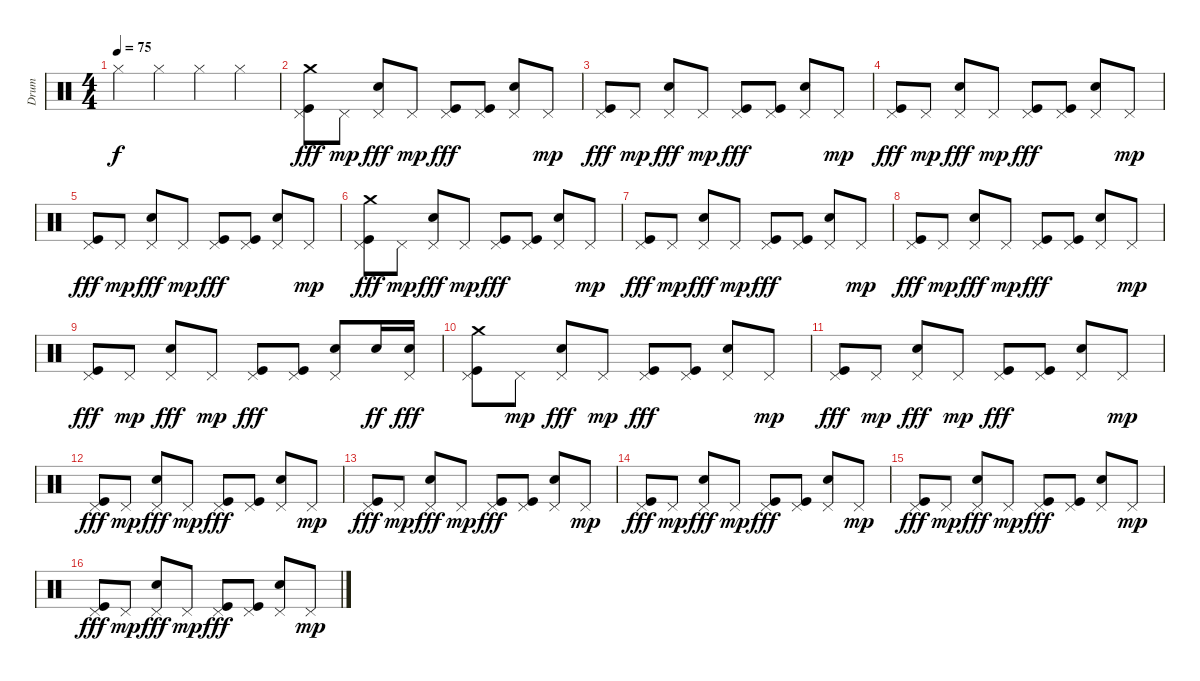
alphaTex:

\track ("Drum" "Drum") {instrument percussion}
\staff {score}
\articulation defaults
\ts (4 4)
\tempo 75
\clef neutral
\ks c "Hi-Hat (closed)".4{dy f} "Hi-Hat (closed)".4 "Hi-Hat (closed)".4 "Hi-Hat (closed)".4
|
("Pedal Hi-Hat (hit)" "Kick (hit)" "Crash medium (hit)").8{dy fff} "Pedal Hi-Hat (hit)".8{dy mp} ("Pedal Hi-Hat (hit)" "Snare (hit) 2").8{dy fff} "Pedal Hi-Hat (hit)".8{dy mp} ("Pedal Hi-Hat (hit)" "Kick (hit)").8{dy fff} ("Pedal Hi-Hat (hit)" "Kick (hit)").8 ("Pedal Hi-Hat (hit)" "Snare (hit) 2").8 "Pedal Hi-Hat (hit)".8{dy mp} |
("Pedal Hi-Hat (hit)" "Kick (hit)").8{dy fff} "Pedal Hi-Hat (hit)".8{dy mp} ("Pedal Hi-Hat (hit)" "Snare (hit) 2").8{dy fff} "Pedal Hi-Hat (hit)".8{dy mp} ("Pedal Hi-Hat (hit)" "Kick (hit)").8{dy fff} ("Pedal Hi-Hat (hit)" "Kick (hit)").8 ("Pedal Hi-Hat (hit)" "Snare (hit) 2").8 "Pedal Hi-Hat (hit)".8{dy mp} |
("Pedal Hi-Hat (hit)" "Kick (hit)").8{dy fff} "Pedal Hi-Hat (hit)".8{dy mp} ("Pedal Hi-Hat (hit)" "Snare (hit) 2").8{dy fff} "Pedal Hi-Hat (hit)".8{dy mp} ("Pedal Hi-Hat (hit)" "Kick (hit)").8{dy fff} ("Pedal Hi-Hat (hit)" "Kick (hit)").8 ("Pedal Hi-Hat (hit)" "Snare (hit) 2").8 "Pedal Hi-Hat (hit)".8{dy mp} |
("Pedal Hi-Hat (hit)" "Kick (hit)").8{dy fff} "Pedal Hi-Hat (hit)".8{dy mp} ("Pedal Hi-Hat (hit)" "Snare (hit) 2").8{dy fff} "Pedal Hi-Hat (hit)".8{dy mp} ("Pedal Hi-Hat (hit)" "Kick (hit)").8{dy fff} ("Pedal Hi-Hat (hit)" "Kick (hit)").8 ("Pedal Hi-Hat (hit)" "Snare (hit) 2").8 "Pedal Hi-Hat (hit)".8{dy mp} |
("Pedal Hi-Hat (hit)" "Kick (hit)" "Crash medium (hit)").8{dy fff} "Pedal Hi-Hat (hit)".8{dy mp} ("Pedal Hi-Hat (hit)" "Snare (hit) 2").8{dy fff} "Pedal Hi-Hat (hit)".8{dy mp} ("Pedal Hi-Hat (hit)" "Kick (hit)").8{dy fff} ("Pedal Hi-Hat (hit)" "Kick (hit)").8 ("Pedal Hi-Hat (hit)" "Snare (hit) 2").8 "Pedal Hi-Hat (hit)".8{dy mp} |
("Pedal Hi-Hat (hit)" "Kick (hit)").8{dy fff} "Pedal Hi-Hat (hit)".8{dy mp} ("Pedal Hi-Hat (hit)" "Snare (hit) 2").8{dy fff} "Pedal Hi-Hat (hit)".8{dy mp} ("Pedal Hi-Hat (hit)" "Kick (hit)").8{dy fff} ("Pedal Hi-Hat (hit)" "Kick (hit)").8 ("Pedal Hi-Hat (hit)" "Snare (hit) 2").8 "Pedal Hi-Hat (hit)".8{dy mp} |
("Pedal Hi-Hat (hit)" "Kick (hit)").8{dy fff} "Pedal Hi-Hat (hit)".8{dy mp} ("Pedal Hi-Hat (hit)" "Snare (hit) 2").8{dy fff} "Pedal Hi-Hat (hit)".8{dy mp} ("Pedal Hi-Hat (hit)" "Kick (hit)").8{dy fff} ("Pedal Hi-Hat (hit)" "Kick (hit)").8 ("Pedal Hi-Hat (hit)" "Snare (hit) 2").8 "Pedal Hi-Hat (hit)".8{dy mp} |
("Pedal Hi-Hat (hit)" "Kick (hit)").8{dy fff} "Pedal Hi-Hat (hit)".8{dy mp} ("Pedal Hi-Hat (hit)" "Snare (hit) 2").8{dy fff} "Pedal Hi-Hat (hit)".8{dy mp} ("Pedal Hi-Hat (hit)" "Kick (hit)").8{dy fff} ("Pedal Hi-Hat (hit)" "Kick (hit)").8 ("Pedal Hi-Hat (hit)" "Snare (hit) 2").8 "Snare (hit) 2".16{dy ff} ("Pedal Hi-Hat (hit)" "Snare (hit) 2").16{dy fff} |
("Pedal Hi-Hat (hit)" "Kick (hit)" "Crash medium (hit)").8 "Pedal Hi-Hat (hit)".8{dy mp} ("Pedal Hi-Hat (hit)" "Snare (hit) 2").8{dy fff} "Pedal Hi-Hat (hit)".8{dy mp} ("Pedal Hi-Hat (hit)" "Kick (hit)").8{dy fff} ("Pedal Hi-Hat (hit)" "Kick (hit)").8 ("Pedal Hi-Hat (hit)" "Snare (hit) 2").8 "Pedal Hi-Hat (hit)".8{dy mp} |
("Pedal Hi-Hat (hit)" "Kick (hit)").8{dy fff} "Pedal Hi-Hat (hit)".8{dy mp} ("Pedal Hi-Hat (hit)" "Snare (hit) 2").8{dy fff} "Pedal Hi-Hat (hit)".8{dy mp} ("Pedal Hi-Hat (hit)" "Kick (hit)").8{dy fff} ("Pedal Hi-Hat (hit)" "Kick (hit)").8 ("Pedal Hi-Hat (hit)" "Snare (hit) 2").8 "Pedal Hi-Hat (hit)".8{dy mp} |
("Pedal Hi-Hat (hit)" "Kick (hit)").8{dy fff} "Pedal Hi-Hat (hit)".8{dy mp} ("Pedal Hi-Hat (hit)" "Snare (hit) 2").8{dy fff} "Pedal Hi-Hat (hit)".8{dy mp} ("Pedal Hi-Hat (hit)" "Kick (hit)").8{dy fff} ("Pedal Hi-Hat (hit)" "Kick (hit)").8 ("Pedal Hi-Hat (hit)" "Snare (hit) 2").8 "Pedal Hi-Hat (hit)".8{dy mp} |
("Pedal Hi-Hat (hit)" "Kick (hit)").8{dy fff} "Pedal Hi-Hat (hit)".8{dy mp} ("Pedal Hi-Hat (hit)" "Snare (hit) 2").8{dy fff} "Pedal Hi-Hat (hit)".8{dy mp} ("Pedal Hi-Hat (hit)" "Kick (hit)").8{dy fff} ("Pedal Hi-Hat (hit)" "Kick (hit)").8 ("Pedal Hi-Hat (hit)" "Snare (hit) 2").8 "Pedal Hi-Hat (hit)".8{dy mp} |
("Pedal Hi-Hat (hit)" "Kick (hit)").8{dy fff} "Pedal Hi-Hat (hit)".8{dy mp} ("Pedal Hi-Hat (hit)" "Snare (hit) 2").8{dy fff} "Pedal Hi-Hat (hit)".8{dy mp} ("Pedal Hi-Hat (hit)" "Kick (hit)").8{dy fff} ("Pedal Hi-Hat (hit)" "Kick (hit)").8 ("Pedal Hi-Hat (hit)" "Snare (hit) 2").8 "Pedal Hi-Hat (hit)".8{dy mp} |
("Pedal Hi-Hat (hit)" "Kick (hit)").8{dy fff} "Pedal Hi-Hat (hit)".8{dy mp} ("Pedal Hi-Hat (hit)" "Snare (hit) 2").8{dy fff} "Pedal Hi-Hat (hit)".8{dy mp} ("Pedal Hi-Hat (hit)" "Kick (hit)").8{dy fff} ("Pedal Hi-Hat (hit)" "Kick (hit)").8 ("Pedal Hi-Hat (hit)" "Snare (hit) 2").8 "Pedal Hi-Hat (hit)".8{dy mp} |
("Pedal Hi-Hat (hit)" "Kick (hit)").8{dy fff} "Pedal Hi-Hat (hit)".8{dy mp} ("Pedal Hi-Hat (hit)" "Snare (hit) 2").8{dy fff} "Pedal Hi-Hat (hit)".8{dy mp} ("Pedal Hi-Hat (hit)" "Kick (hit)").8{dy fff} ("Pedal Hi-Hat (hit)" "Kick (hit)").8 ("Pedal Hi-Hat (hit)" "Snare (hit) 2").8 "Pedal Hi-Hat (hit)".8{dy mp}
